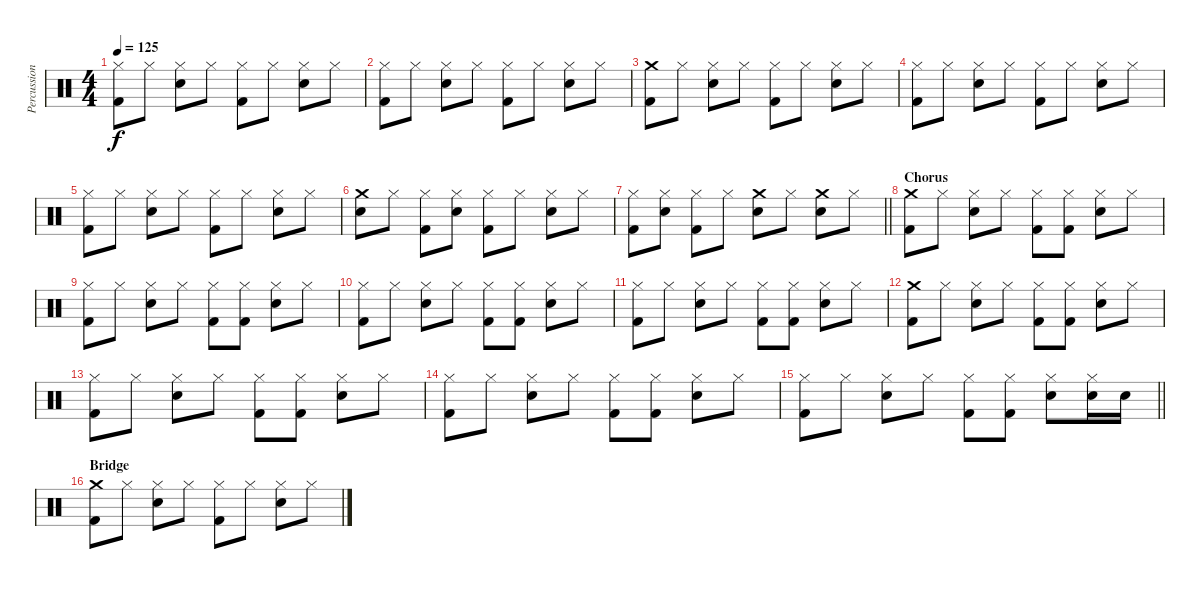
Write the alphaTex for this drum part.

\track ("Percussion" "Percussion") {instrument percussion}
\staff {score}
\articulation defaults
\ts (4 4)
\tempo 125
\clef neutral
\ks c
("Hi-Hat (closed)" "Kick (hit) 2").8{dy f} "Hi-Hat (closed)".8 ("Hi-Hat (closed)" "Snare (hit) 2").8 "Hi-Hat (closed)".8 ("Hi-Hat (closed)" "Kick (hit) 2").8 "Hi-Hat (closed)".8 ("Hi-Hat (closed)" "Snare (hit) 2").8 "Hi-Hat (closed)".8 |
("Hi-Hat (closed)" "Kick (hit) 2").8 "Hi-Hat (closed)".8 ("Hi-Hat (closed)" "Snare (hit) 2").8 "Hi-Hat (closed)".8 ("Hi-Hat (closed)" "Kick (hit) 2").8 "Hi-Hat (closed)".8 ("Hi-Hat (closed)" "Snare (hit) 2").8 "Hi-Hat (closed)".8 |
("Crash medium (hit)" "Kick (hit) 2").8 "Hi-Hat (closed)".8 ("Hi-Hat (closed)" "Snare (hit) 2").8 "Hi-Hat (closed)".8 ("Hi-Hat (closed)" "Kick (hit) 2").8 "Hi-Hat (closed)".8 ("Hi-Hat (closed)" "Snare (hit) 2").8 "Hi-Hat (closed)".8 |
("Hi-Hat (closed)" "Kick (hit) 2").8 "Hi-Hat (closed)".8 ("Hi-Hat (closed)" "Snare (hit) 2").8 "Hi-Hat (closed)".8 ("Hi-Hat (closed)" "Kick (hit) 2").8 "Hi-Hat (closed)".8 ("Hi-Hat (closed)" "Snare (hit) 2").8 "Hi-Hat (closed)".8 |
("Hi-Hat (closed)" "Kick (hit) 2").8 "Hi-Hat (closed)".8 ("Hi-Hat (closed)" "Snare (hit) 2").8 "Hi-Hat (closed)".8 ("Hi-Hat (closed)" "Kick (hit) 2").8 "Hi-Hat (closed)".8 ("Hi-Hat (closed)" "Snare (hit) 2").8 "Hi-Hat (closed)".8 |
("Crash medium (hit)" "Snare (hit) 2").8 "Hi-Hat (closed)".8 ("Hi-Hat (closed)" "Kick (hit) 2").8 ("Hi-Hat (closed)" "Snare (hit) 2").8 ("Hi-Hat (closed)" "Kick (hit) 2").8 "Hi-Hat (closed)".8 ("Hi-Hat (closed)" "Snare (hit) 2").8 "Hi-Hat (closed)".8 |
\barLineRight lightlight
("Hi-Hat (closed)" "Kick (hit) 2").8 ("Hi-Hat (closed)" "Snare (hit) 2").8 ("Hi-Hat (closed)" "Kick (hit) 2").8 "Hi-Hat (closed)".8 ("Crash medium (hit)" "Snare (hit) 2").8 "Hi-Hat (closed)".8 ("Crash medium (hit)" "Snare (hit) 2").8 "Hi-Hat (closed)".8 |
\section ("" "Chorus")
("Crash medium (hit)" "Kick (hit) 2").8 "Hi-Hat (closed)".8 ("Hi-Hat (closed)" "Snare (hit) 2").8 "Hi-Hat (closed)".8 ("Hi-Hat (closed)" "Kick (hit) 2").8 ("Hi-Hat (closed)" "Kick (hit) 2").8 ("Hi-Hat (closed)" "Snare (hit) 2").8 "Hi-Hat (closed)".8 |
("Hi-Hat (closed)" "Kick (hit) 2").8 "Hi-Hat (closed)".8 ("Hi-Hat (closed)" "Snare (hit) 2").8 "Hi-Hat (closed)".8 ("Hi-Hat (closed)" "Kick (hit) 2").8 ("Hi-Hat (closed)" "Kick (hit) 2").8 ("Hi-Hat (closed)" "Snare (hit) 2").8 "Hi-Hat (closed)".8 |
("Hi-Hat (closed)" "Kick (hit) 2").8 "Hi-Hat (closed)".8 ("Hi-Hat (closed)" "Snare (hit) 2").8 "Hi-Hat (closed)".8 ("Hi-Hat (closed)" "Kick (hit) 2").8 ("Hi-Hat (closed)" "Kick (hit) 2").8 ("Hi-Hat (closed)" "Snare (hit) 2").8 "Hi-Hat (closed)".8 |
("Hi-Hat (closed)" "Kick (hit) 2").8 "Hi-Hat (closed)".8 ("Hi-Hat (closed)" "Snare (hit) 2").8 "Hi-Hat (closed)".8 ("Hi-Hat (closed)" "Kick (hit) 2").8 ("Hi-Hat (closed)" "Kick (hit) 2").8 ("Hi-Hat (closed)" "Snare (hit) 2").8 "Hi-Hat (closed)".8 |
("Crash medium (hit)" "Kick (hit) 2").8 "Hi-Hat (closed)".8 ("Hi-Hat (closed)" "Snare (hit) 2").8 "Hi-Hat (closed)".8 ("Hi-Hat (closed)" "Kick (hit) 2").8 ("Hi-Hat (closed)" "Kick (hit) 2").8 ("Hi-Hat (closed)" "Snare (hit) 2").8 "Hi-Hat (closed)".8 |
("Hi-Hat (closed)" "Kick (hit) 2").8 "Hi-Hat (closed)".8 ("Hi-Hat (closed)" "Snare (hit) 2").8 "Hi-Hat (closed)".8 ("Hi-Hat (closed)" "Kick (hit) 2").8 ("Hi-Hat (closed)" "Kick (hit) 2").8 ("Hi-Hat (closed)" "Snare (hit) 2").8 "Hi-Hat (closed)".8 |
("Hi-Hat (closed)" "Kick (hit) 2").8 "Hi-Hat (closed)".8 ("Hi-Hat (closed)" "Snare (hit) 2").8 "Hi-Hat (closed)".8 ("Hi-Hat (closed)" "Kick (hit) 2").8 ("Hi-Hat (closed)" "Kick (hit) 2").8 ("Hi-Hat (closed)" "Snare (hit) 2").8 "Hi-Hat (closed)".8 |
\barLineRight lightlight
("Hi-Hat (closed)" "Kick (hit) 2").8 "Hi-Hat (closed)".8 ("Hi-Hat (closed)" "Snare (hit) 2").8 "Hi-Hat (closed)".8 ("Hi-Hat (closed)" "Kick (hit) 2").8 ("Hi-Hat (closed)" "Kick (hit) 2").8 ("Hi-Hat (closed)" "Snare (hit) 2").8 ("Hi-Hat (closed)" "Snare (hit) 2").16 "Snare (hit) 2".16 |
\section ("" "Bridge")
("Crash medium (hit)" "Kick (hit) 2").8 "Hi-Hat (closed)".8 ("Hi-Hat (closed)" "Snare (hit) 2").8 "Hi-Hat (closed)".8 ("Hi-Hat (closed)" "Kick (hit) 2").8 "Hi-Hat (closed)".8 ("Hi-Hat (closed)" "Snare (hit) 2").8 "Hi-Hat (closed)".8
